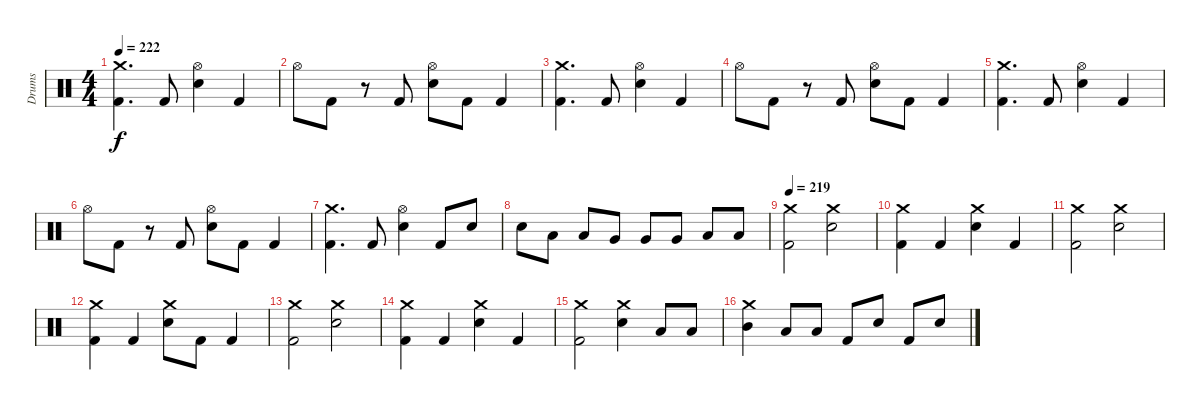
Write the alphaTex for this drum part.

\track ("Drums" "Drums") {instrument percussion}
\staff {score}
\articulation defaults
\ts (4 4)
\tempo 222
\clef neutral
\ks c
("Kick (hit) 2" "Crash medium (hit)").4{d dy f} "Kick (hit) 2".8 ("Snare (hit) 2" "Hi-Hat (open)").4 "Kick (hit) 2".4 |
"Hi-Hat (open)".8 "Kick (hit) 2".8 r.8 "Kick (hit) 2".8 ("Snare (hit) 2" "Hi-Hat (open)").8 "Kick (hit) 2".8 "Kick (hit) 2".4 |
("Kick (hit) 2" "Crash medium (hit)").4{d} "Kick (hit) 2".8 ("Snare (hit) 2" "Hi-Hat (open)").4 "Kick (hit) 2".4 |
"Hi-Hat (open)".8 "Kick (hit) 2".8 r.8 "Kick (hit) 2".8 ("Snare (hit) 2" "Hi-Hat (open)").8 "Kick (hit) 2".8 "Kick (hit) 2".4 |
("Kick (hit) 2" "Crash medium (hit)").4{d} "Kick (hit) 2".8 ("Snare (hit) 2" "Hi-Hat (open)").4 "Kick (hit) 2".4 |
"Hi-Hat (open)".8 "Kick (hit) 2".8 r.8 "Kick (hit) 2".8 ("Snare (hit) 2" "Hi-Hat (open)").8 "Kick (hit) 2".8 "Kick (hit) 2".4 |
("Kick (hit) 2" "Crash medium (hit)").4{d} "Kick (hit) 2".8 ("Snare (hit) 2" "Hi-Hat (open)").4 "Kick (hit) 2".8 "Snare (hit) 2".8 |
"Snare (hit) 2".8 "Low Tom (hit)".8 "Low Tom (hit)".8 "Very Low Tom (hit)".8 "Very Low Tom (hit)".8 "Very Low Tom (hit)".8 "Low Floor Tom (hit)".8 "Low Floor Tom (hit)".8 |
\tempo 219
("Kick (hit) 2" "Crash medium (hit)").2 ("Snare (hit) 2" "Crash medium (hit)").2 |
("Kick (hit) 2" "Crash medium (hit)").4 "Kick (hit) 2".4 ("Snare (hit) 2" "Crash medium (hit)").4 "Kick (hit) 2".4 |
("Kick (hit) 2" "Crash medium (hit)").2 ("Snare (hit) 2" "Crash medium (hit)").2 |
("Kick (hit) 2" "Crash medium (hit)").4 "Kick (hit) 2".4 ("Snare (hit) 2" "Crash medium (hit)").8 "Kick (hit) 2".8 "Kick (hit) 2".4 |
("Kick (hit) 2" "Crash medium (hit)").2 ("Snare (hit) 2" "Crash medium (hit)").2 |
("Kick (hit) 2" "Crash medium (hit)").4 "Kick (hit) 2".4 ("Snare (hit) 2" "Crash medium (hit)").4 "Kick (hit) 2".4 |
("Kick (hit) 2" "Crash medium (hit)").2 ("Snare (hit) 2" "Crash medium (hit)").4 "Low Tom (hit)".8 "Low Tom (hit)".8 |
("Mid Tom (hit)" "Crash medium (hit)").4 "Low Tom (hit)".8 "Low Tom (hit)".8 "Kick (hit) 2".8 "Snare (hit) 2".8 "Kick (hit) 2".8 "Snare (hit) 2".8
